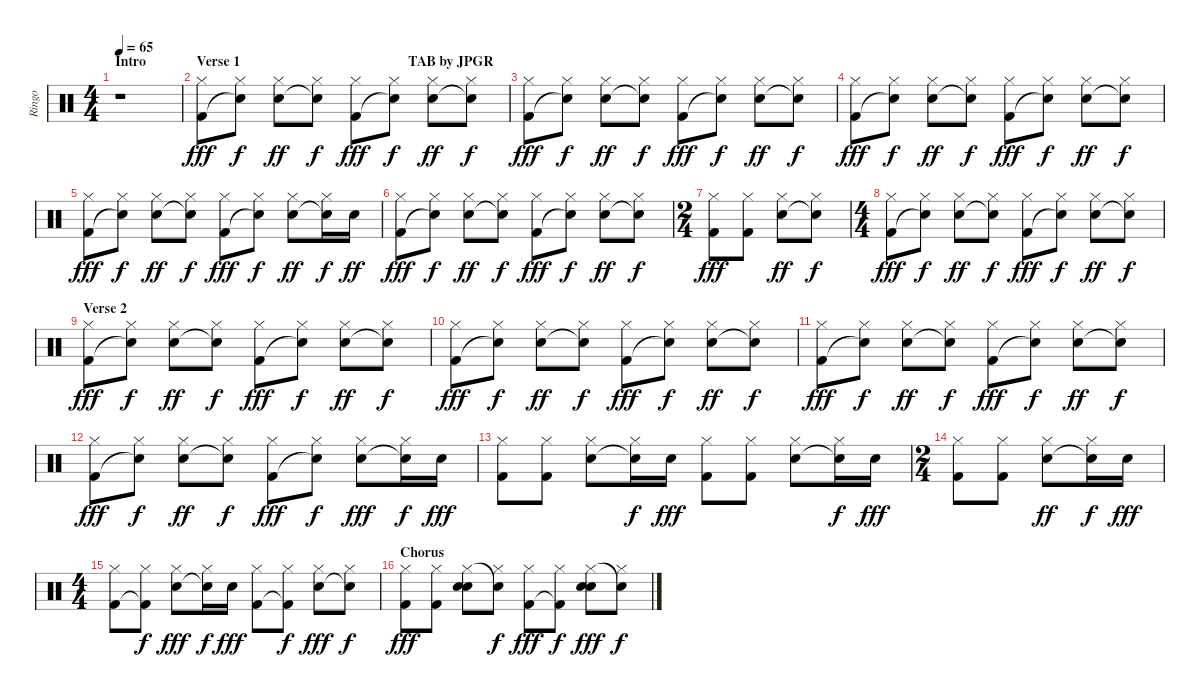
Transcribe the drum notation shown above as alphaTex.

\track ("Ringo" "Ringo") {instrument percussion}
\staff {score}
\articulation defaults
\ts (4 4)
\section ("" "Intro")
\tempo 65
\clef neutral
\ks c
r.1{dy fff} |
\section ("" "Verse 1                                                TAB by JPGR")
("Hi-Hat (closed)" "Kick (hit) 2").8 ("Hi-Hat (closed)" "Snare (hit)"{t}).8{dy f} ("Hi-Hat (closed)" "Snare (hit) 2").8{dy ff} ("Hi-Hat (closed)" "Snare (hit)"{t}).8{dy f} ("Hi-Hat (closed)" "Kick (hit) 2").8{dy fff} ("Hi-Hat (closed)" "Snare (hit)"{t}).8{dy f} ("Hi-Hat (closed)" "Snare (hit) 2").8{dy ff} ("Hi-Hat (closed)" "Snare (hit)"{t}).8{dy f} |
("Hi-Hat (closed)" "Kick (hit) 2").8{dy fff} ("Hi-Hat (closed)" "Snare (hit)"{t}).8{dy f} ("Hi-Hat (closed)" "Snare (hit) 2").8{dy ff} ("Hi-Hat (closed)" "Snare (hit)"{t}).8{dy f} ("Hi-Hat (closed)" "Kick (hit) 2").8{dy fff} ("Hi-Hat (closed)" "Snare (hit)"{t}).8{dy f} ("Hi-Hat (closed)" "Snare (hit) 2").8{dy ff} ("Hi-Hat (closed)" "Snare (hit)"{t}).8{dy f} |
("Hi-Hat (closed)" "Kick (hit) 2").8{dy fff} ("Hi-Hat (closed)" "Snare (hit)"{t}).8{dy f} ("Hi-Hat (closed)" "Snare (hit) 2").8{dy ff} ("Hi-Hat (closed)" "Snare (hit)"{t}).8{dy f} ("Hi-Hat (closed)" "Kick (hit) 2").8{dy fff} ("Hi-Hat (closed)" "Snare (hit)"{t}).8{dy f} ("Hi-Hat (closed)" "Snare (hit) 2").8{dy ff} ("Hi-Hat (closed)" "Snare (hit)"{t}).8{dy f} |
("Hi-Hat (closed)" "Kick (hit) 2").8{dy fff} ("Hi-Hat (closed)" "Snare (hit)"{t}).8{dy f} ("Hi-Hat (closed)" "Snare (hit) 2").8{dy ff} ("Hi-Hat (closed)" "Snare (hit)"{t}).8{dy f} ("Hi-Hat (closed)" "Kick (hit) 2").8{dy fff} ("Hi-Hat (closed)" "Snare (hit)"{t}).8{dy f} ("Hi-Hat (closed)" "Snare (hit) 2").8{dy ff} ("Hi-Hat (closed)" "Snare (hit)"{t}).16{dy f} "Snare (hit) 2".16{dy ff} |
("Hi-Hat (closed)" "Kick (hit) 2").8{dy fff} ("Hi-Hat (closed)" "Snare (hit)"{t}).8{dy f} ("Hi-Hat (closed)" "Snare (hit) 2").8{dy ff} ("Hi-Hat (closed)" "Snare (hit)"{t}).8{dy f} ("Hi-Hat (closed)" "Kick (hit) 2").8{dy fff} ("Hi-Hat (closed)" "Snare (hit)"{t}).8{dy f} ("Hi-Hat (closed)" "Snare (hit) 2").8{dy ff} ("Hi-Hat (closed)" "Snare (hit)"{t}).8{dy f} |
\ts (2 4)
("Hi-Hat (closed)" "Kick (hit) 2").8{dy fff} ("Hi-Hat (closed)" "Kick (hit) 2").8 ("Hi-Hat (closed)" "Snare (hit) 2").8{dy ff} ("Hi-Hat (closed)" "Snare (hit)"{t}).8{dy f} |
\ts (4 4)
("Hi-Hat (closed)" "Kick (hit) 2").8{dy fff} ("Hi-Hat (closed)" "Snare (hit)"{t}).8{dy f} ("Hi-Hat (closed)" "Snare (hit) 2").8{dy ff} ("Hi-Hat (closed)" "Snare (hit)"{t}).8{dy f} ("Hi-Hat (closed)" "Kick (hit) 2").8{dy fff} ("Hi-Hat (closed)" "Snare (hit)"{t}).8{dy f} ("Hi-Hat (closed)" "Snare (hit) 2").8{dy ff} ("Hi-Hat (closed)" "Snare (hit)"{t}).8{dy f} |
\section ("" "Verse 2")
("Hi-Hat (closed)" "Kick (hit) 2").8{dy fff} ("Hi-Hat (closed)" "Snare (hit)"{t}).8{dy f} ("Hi-Hat (closed)" "Snare (hit) 2").8{dy ff} ("Hi-Hat (closed)" "Snare (hit)"{t}).8{dy f} ("Hi-Hat (closed)" "Kick (hit) 2").8{dy fff} ("Hi-Hat (closed)" "Snare (hit)"{t}).8{dy f} ("Hi-Hat (closed)" "Snare (hit) 2").8{dy ff} ("Hi-Hat (closed)" "Snare (hit)"{t}).8{dy f} |
("Hi-Hat (closed)" "Kick (hit) 2").8{dy fff} ("Hi-Hat (closed)" "Snare (hit)"{t}).8{dy f} ("Hi-Hat (closed)" "Snare (hit) 2").8{dy ff} ("Hi-Hat (closed)" "Snare (hit)"{t}).8{dy f} ("Hi-Hat (closed)" "Kick (hit) 2").8{dy fff} ("Hi-Hat (closed)" "Snare (hit)"{t}).8{dy f} ("Hi-Hat (closed)" "Snare (hit) 2").8{dy ff} ("Hi-Hat (closed)" "Snare (hit)"{t}).8{dy f} |
("Hi-Hat (closed)" "Kick (hit) 2").8{dy fff} ("Hi-Hat (closed)" "Snare (hit)"{t}).8{dy f} ("Hi-Hat (closed)" "Snare (hit) 2").8{dy ff} ("Hi-Hat (closed)" "Snare (hit)"{t}).8{dy f} ("Hi-Hat (closed)" "Kick (hit) 2").8{dy fff} ("Hi-Hat (closed)" "Snare (hit)"{t}).8{dy f} ("Hi-Hat (closed)" "Snare (hit) 2").8{dy ff} ("Hi-Hat (closed)" "Snare (hit)"{t}).8{dy f} |
("Hi-Hat (closed)" "Kick (hit) 2").8{dy fff} ("Hi-Hat (closed)" "Snare (hit)"{t}).8{dy f} ("Hi-Hat (closed)" "Snare (hit) 2").8{dy ff} ("Hi-Hat (closed)" "Snare (hit)"{t}).8{dy f} ("Hi-Hat (closed)" "Kick (hit) 2").8{dy fff} ("Hi-Hat (closed)" "Snare (hit)"{t}).8{dy f} ("Hi-Hat (closed)" "Snare (hit) 2").8{dy fff} ("Hi-Hat (closed)" "Snare (hit)"{t}).16{dy f} "Snare (hit) 2".16{dy fff} |
("Hi-Hat (closed)" "Kick (hit) 2").8 ("Hi-Hat (closed)" "Kick (hit) 2").8 ("Hi-Hat (closed)" "Snare (hit) 2").8 ("Hi-Hat (closed)" "Snare (hit)"{t}).16{dy f} "Snare (hit) 2".16{dy fff} ("Hi-Hat (closed)" "Kick (hit) 2").8 ("Hi-Hat (closed)" "Kick (hit) 2").8 ("Hi-Hat (closed)" "Snare (hit) 2").8 ("Hi-Hat (closed)" "Snare (hit)"{t}).16{dy f} "Snare (hit) 2".16{dy fff} |
\ts (2 4)
("Hi-Hat (closed)" "Kick (hit) 2").8 ("Hi-Hat (closed)" "Kick (hit) 2").8 ("Hi-Hat (closed)" "Snare (hit) 2").8{dy ff} ("Hi-Hat (closed)" "Snare (hit)"{t}).16{dy f} "Snare (hit) 2".16{dy fff} |
\ts (4 4)
("Hi-Hat (closed)" "Kick (hit) 2").8 ("Hi-Hat (closed)" "Kick (hit) 2"{t}).8{dy f} ("Hi-Hat (closed)" "Snare (hit) 2").8{dy fff} ("Hi-Hat (closed)" "Snare (hit)"{t}).16{dy f} "Snare (hit) 2".16{dy fff} ("Hi-Hat (closed)" "Kick (hit) 2").8 ("Hi-Hat (closed)" "Kick (hit) 2"{t}).8{dy f} ("Hi-Hat (closed)" "Snare (hit) 2").8{dy fff} ("Hi-Hat (closed)" "Snare (hit)"{t}).8{dy f} |
\section ("" "Chorus")
("Hi-Hat (closed)" "Kick (hit) 2").8{dy fff} ("Hi-Hat (closed)" "Kick (hit) 2").8 ("Electric Snare (hit)" "Hi-Hat (closed)" "Snare (hit) 2").8 ("Hi-Hat (closed)" "Snare (hit)"{t}).8{dy f} ("Hi-Hat (closed)" "Kick (hit) 2").8{dy fff} ("Hi-Hat (closed)" "Kick (hit) 2"{t}).8{dy f} ("Electric Snare (hit)" "Hi-Hat (closed)" "Snare (hit) 2").8{dy fff} ("Hi-Hat (closed)" "Snare (hit)"{t}).8{dy f}
